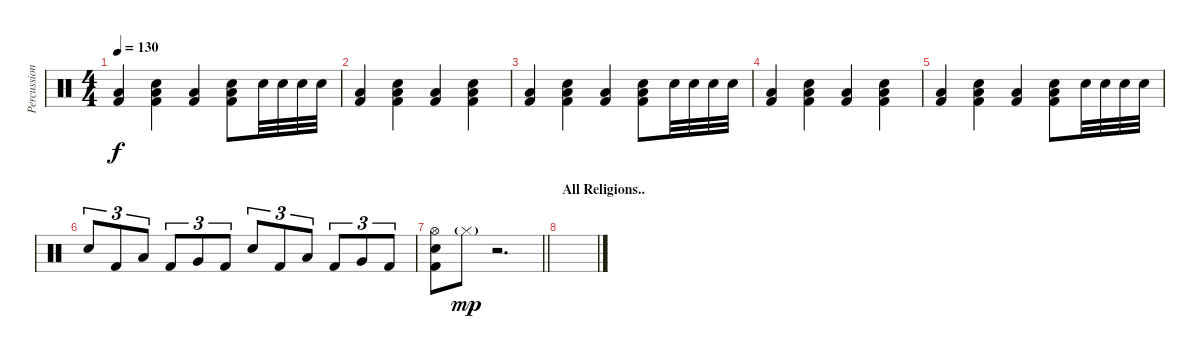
\track ("Percussion" "Percussion") {instrument percussion}
\staff {score}
\articulation defaults
\ts (4 4)
\tempo 130
\clef neutral
\ks c
("Low Floor Tom (hit)" "Kick (hit) 2").4{dy f} ("Low Floor Tom (hit)" "Electric Snare (hit)" "Kick (hit) 2").4 ("Low Floor Tom (hit)" "Kick (hit) 2").4 ("Low Floor Tom (hit)" "Electric Snare (hit)" "Kick (hit) 2").8 "Electric Snare (hit)".32 "Electric Snare (hit)".32 "Electric Snare (hit)".32 "Electric Snare (hit)".32 |
("Low Floor Tom (hit)" "Kick (hit) 2").4 ("Low Floor Tom (hit)" "Electric Snare (hit)" "Kick (hit) 2").4 ("Low Floor Tom (hit)" "Kick (hit) 2").4 ("Low Floor Tom (hit)" "Electric Snare (hit)" "Kick (hit) 2").4 |
("Low Floor Tom (hit)" "Kick (hit) 2").4 ("Low Floor Tom (hit)" "Electric Snare (hit)" "Kick (hit) 2").4 ("Low Floor Tom (hit)" "Kick (hit) 2").4 ("Low Floor Tom (hit)" "Electric Snare (hit)" "Kick (hit) 2").8 "Electric Snare (hit)".32 "Electric Snare (hit)".32 "Electric Snare (hit)".32 "Electric Snare (hit)".32 |
("Low Floor Tom (hit)" "Kick (hit) 2").4 ("Low Floor Tom (hit)" "Electric Snare (hit)" "Kick (hit) 2").4 ("Low Floor Tom (hit)" "Kick (hit) 2").4 ("Low Floor Tom (hit)" "Electric Snare (hit)" "Kick (hit) 2").4 |
("Low Floor Tom (hit)" "Kick (hit) 2").4 ("Low Floor Tom (hit)" "Electric Snare (hit)" "Kick (hit) 2").4 ("Low Floor Tom (hit)" "Kick (hit) 2").4 ("Low Floor Tom (hit)" "Electric Snare (hit)" "Kick (hit) 2").8 "Electric Snare (hit)".32 "Electric Snare (hit)".32 "Electric Snare (hit)".32 "Electric Snare (hit)".32 |
"Electric Snare (hit)".8{tu (3 2)} "Kick (hit) 2".8{tu (3 2)} "Low Tom (hit)".8{tu (3 2)} "Kick (hit) 2".8{tu (3 2)} "Very Low Tom (hit)".8{tu (3 2)} "Kick (hit) 2".8{tu (3 2)} "Electric Snare (hit)".8{tu (3 2)} "Kick (hit) 2".8{tu (3 2)} "Low Tom (hit)".8{tu (3 2)} "Kick (hit) 2".8{tu (3 2)} "Very Low Tom (hit)".8{tu (3 2)} "Kick (hit) 2".8{tu (3 2)} |
\barLineRight lightlight
("Electric Snare (hit)" "Hi-Hat (open)" "Kick (hit) 2").8 "Hi-Hat (closed)"{g}.8{dy mp} r.2{d} |
\section ("" "All Religions..")
